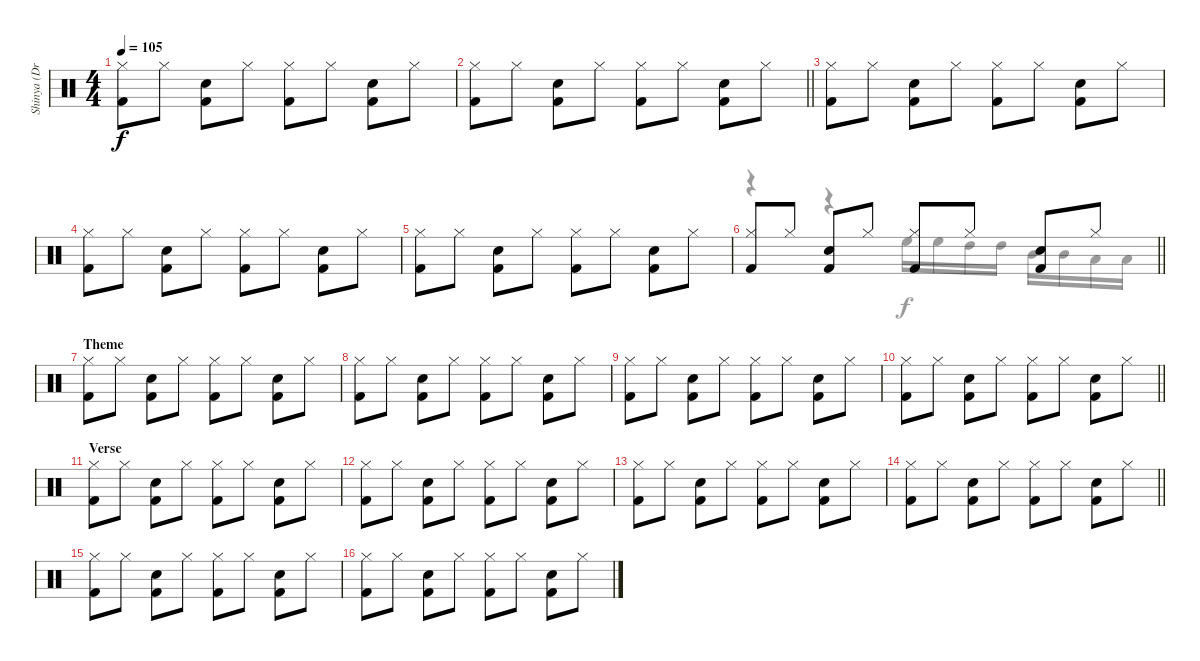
\track ("Shinya (Drums)" "Shinya (Dr") {instrument percussion}
\staff {score}
\articulation defaults
\voice
\ts (4 4)
\tempo 105
\clef neutral
\ks c
("Hi-Hat (closed)" "Kick (hit) 2").8{dy f} "Hi-Hat (closed)".8 ("Snare (hit) 2" "Kick (hit) 2").8 "Hi-Hat (closed)".8 ("Hi-Hat (closed)" "Kick (hit) 2").8 "Hi-Hat (closed)".8 ("Snare (hit) 2" "Kick (hit) 2").8 "Hi-Hat (closed)".8 |
\barLineRight lightlight
("Hi-Hat (closed)" "Kick (hit) 2").8 "Hi-Hat (closed)".8 ("Snare (hit) 2" "Kick (hit) 2").8 "Hi-Hat (closed)".8 ("Hi-Hat (closed)" "Kick (hit) 2").8 "Hi-Hat (closed)".8 ("Snare (hit) 2" "Kick (hit) 2").8 "Hi-Hat (closed)".8 |
("Hi-Hat (closed)" "Kick (hit) 2").8 "Hi-Hat (closed)".8 ("Snare (hit) 2" "Kick (hit) 2").8 "Hi-Hat (closed)".8 ("Hi-Hat (closed)" "Kick (hit) 2").8 "Hi-Hat (closed)".8 ("Snare (hit) 2" "Kick (hit) 2").8 "Hi-Hat (closed)".8 |
("Hi-Hat (closed)" "Kick (hit) 2").8 "Hi-Hat (closed)".8 ("Snare (hit) 2" "Kick (hit) 2").8 "Hi-Hat (closed)".8 ("Hi-Hat (closed)" "Kick (hit) 2").8 "Hi-Hat (closed)".8 ("Snare (hit) 2" "Kick (hit) 2").8 "Hi-Hat (closed)".8 |
("Hi-Hat (closed)" "Kick (hit) 2").8 "Hi-Hat (closed)".8 ("Snare (hit) 2" "Kick (hit) 2").8 "Hi-Hat (closed)".8 ("Hi-Hat (closed)" "Kick (hit) 2").8 "Hi-Hat (closed)".8 ("Snare (hit) 2" "Kick (hit) 2").8 "Hi-Hat (closed)".8 |
\barLineRight lightlight
("Hi-Hat (closed)" "Kick (hit) 2").8 "Hi-Hat (closed)".8 ("Snare (hit) 2" "Kick (hit) 2").8 "Hi-Hat (closed)".8 ("Hi-Hat (closed)" "Kick (hit) 2").8 "Hi-Hat (closed)".8 ("Snare (hit) 2" "Kick (hit) 2").8 "Hi-Hat (closed)".8 |
\section ("" "Theme")
("Hi-Hat (closed)" "Kick (hit) 2").8 "Hi-Hat (closed)".8 ("Snare (hit) 2" "Kick (hit) 2").8 "Hi-Hat (closed)".8 ("Hi-Hat (closed)" "Kick (hit) 2").8 "Hi-Hat (closed)".8 ("Snare (hit) 2" "Kick (hit) 2").8 "Hi-Hat (closed)".8 |
("Hi-Hat (closed)" "Kick (hit) 2").8 "Hi-Hat (closed)".8 ("Snare (hit) 2" "Kick (hit) 2").8 "Hi-Hat (closed)".8 ("Hi-Hat (closed)" "Kick (hit) 2").8 "Hi-Hat (closed)".8 ("Snare (hit) 2" "Kick (hit) 2").8 "Hi-Hat (closed)".8 |
("Hi-Hat (closed)" "Kick (hit) 2").8 "Hi-Hat (closed)".8 ("Snare (hit) 2" "Kick (hit) 2").8 "Hi-Hat (closed)".8 ("Hi-Hat (closed)" "Kick (hit) 2").8 "Hi-Hat (closed)".8 ("Snare (hit) 2" "Kick (hit) 2").8 "Hi-Hat (closed)".8 |
\barLineRight lightlight
("Hi-Hat (closed)" "Kick (hit) 2").8 "Hi-Hat (closed)".8 ("Snare (hit) 2" "Kick (hit) 2").8 "Hi-Hat (closed)".8 ("Hi-Hat (closed)" "Kick (hit) 2").8 "Hi-Hat (closed)".8 ("Snare (hit) 2" "Kick (hit) 2").8 "Hi-Hat (closed)".8 |
\section ("" "Verse")
("Hi-Hat (closed)" "Kick (hit) 2").8 "Hi-Hat (closed)".8 ("Snare (hit) 2" "Kick (hit) 2").8 "Hi-Hat (closed)".8 ("Hi-Hat (closed)" "Kick (hit) 2").8 "Hi-Hat (closed)".8 ("Snare (hit) 2" "Kick (hit) 2").8 "Hi-Hat (closed)".8 |
("Hi-Hat (closed)" "Kick (hit) 2").8 "Hi-Hat (closed)".8 ("Snare (hit) 2" "Kick (hit) 2").8 "Hi-Hat (closed)".8 ("Hi-Hat (closed)" "Kick (hit) 2").8 "Hi-Hat (closed)".8 ("Snare (hit) 2" "Kick (hit) 2").8 "Hi-Hat (closed)".8 |
("Hi-Hat (closed)" "Kick (hit) 2").8 "Hi-Hat (closed)".8 ("Snare (hit) 2" "Kick (hit) 2").8 "Hi-Hat (closed)".8 ("Hi-Hat (closed)" "Kick (hit) 2").8 "Hi-Hat (closed)".8 ("Snare (hit) 2" "Kick (hit) 2").8 "Hi-Hat (closed)".8 |
\barLineRight lightlight
("Hi-Hat (closed)" "Kick (hit) 2").8 "Hi-Hat (closed)".8 ("Snare (hit) 2" "Kick (hit) 2").8 "Hi-Hat (closed)".8 ("Hi-Hat (closed)" "Kick (hit) 2").8 "Hi-Hat (closed)".8 ("Snare (hit) 2" "Kick (hit) 2").8 "Hi-Hat (closed)".8 |
("Hi-Hat (closed)" "Kick (hit) 2").8 "Hi-Hat (closed)".8 ("Snare (hit) 2" "Kick (hit) 2").8 "Hi-Hat (closed)".8 ("Hi-Hat (closed)" "Kick (hit) 2").8 "Hi-Hat (closed)".8 ("Snare (hit) 2" "Kick (hit) 2").8 "Hi-Hat (closed)".8 |
("Hi-Hat (closed)" "Kick (hit) 2").8 "Hi-Hat (closed)".8 ("Snare (hit) 2" "Kick (hit) 2").8 "Hi-Hat (closed)".8 ("Hi-Hat (closed)" "Kick (hit) 2").8 "Hi-Hat (closed)".8 ("Snare (hit) 2" "Kick (hit) 2").8 "Hi-Hat (closed)".8
\voice
\clef neutral
\ottava regular
\simile none
\ks c
|
\barLineRight lightlight
|
|
|
|
\barLineRight lightlight
r.4 r.4 "High Floor Tom (hit)".16 "High Floor Tom (hit)".16 "High Tom (hit)".16 "High Tom (hit)".16 "Mid Tom (hit)".16 "Mid Tom (hit)".16 "Low Tom (hit)".16 "Low Tom (hit)".16 |
|
|
|
\barLineRight lightlight
|
|
|
|
\barLineRight lightlight
|
|
